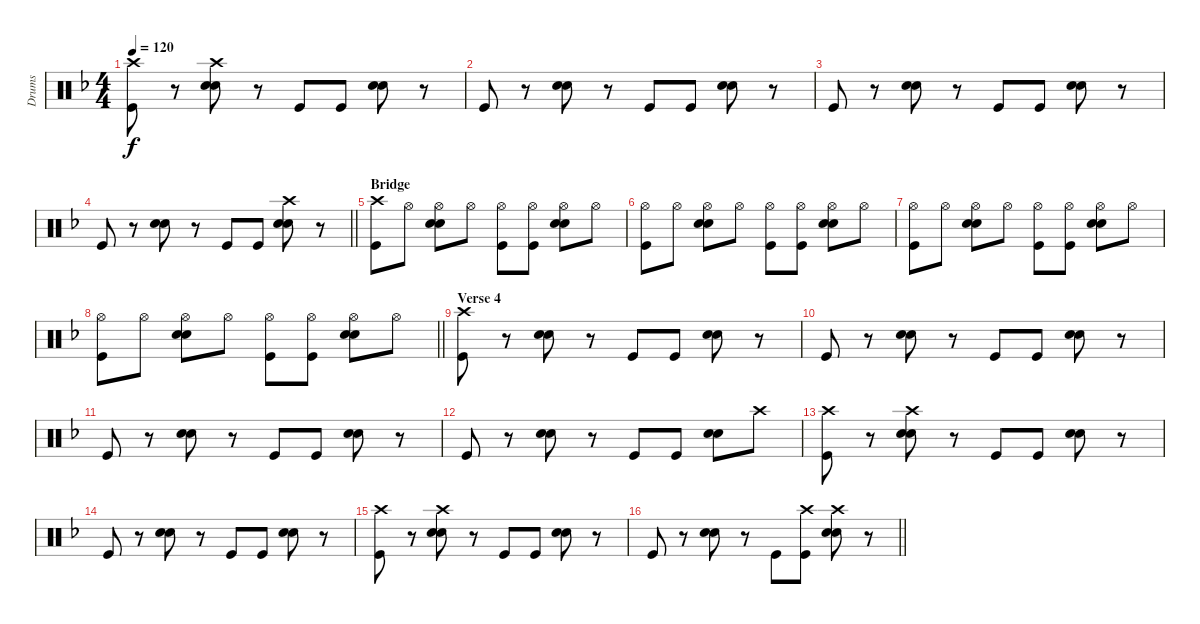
\track ("Drums" "Drums") {instrument percussion}
\staff {score}
\articulation defaults
\ts (4 4)
\tempo 120
\clef neutral
\ks f
("Crash high (hit)" "Kick (hit)").8{dy f} r.8 ("Crash high (hit)" "Electric Snare (hit)" "Snare (hit) 2").8 r.8 "Kick (hit)".8 "Kick (hit)".8 ("Electric Snare (hit)" "Snare (hit) 2").8 r.8 |
"Kick (hit)".8 r.8 ("Electric Snare (hit)" "Snare (hit) 2").8 r.8 "Kick (hit)".8 "Kick (hit)".8 ("Electric Snare (hit)" "Snare (hit) 2").8 r.8 |
"Kick (hit)".8 r.8 ("Electric Snare (hit)" "Snare (hit) 2").8 r.8 "Kick (hit)".8 "Kick (hit)".8 ("Electric Snare (hit)" "Snare (hit) 2").8 r.8 |
\barLineRight lightlight "Kick (hit)".8
r.8 ("Electric Snare (hit)" "Snare (hit) 2").8 r.8 "Kick (hit)".8 "Kick (hit)".8 ("Crash high (hit)" "Electric Snare (hit)" "Snare (hit) 2").8 r.8 |
\section ("" "Bridge")
("Crash high (hit)" "Kick (hit)").8{volume 16} "Hi-Hat (open)".8 ("Hi-Hat (open)" "Electric Snare (hit)" "Snare (hit) 2").8 "Hi-Hat (open)".8 ("Hi-Hat (open)" "Kick (hit)").8 ("Hi-Hat (open)" "Kick (hit)").8 ("Hi-Hat (open)" "Electric Snare (hit)" "Snare (hit) 2").8 "Hi-Hat (open)".8 |
("Hi-Hat (open)" "Kick (hit)").8 "Hi-Hat (open)".8 ("Hi-Hat (open)" "Electric Snare (hit)" "Snare (hit) 2").8 "Hi-Hat (open)".8 ("Hi-Hat (open)" "Kick (hit)").8 ("Hi-Hat (open)" "Kick (hit)").8 ("Hi-Hat (open)" "Electric Snare (hit)" "Snare (hit) 2").8 "Hi-Hat (open)".8 |
("Hi-Hat (open)" "Kick (hit)").8 "Hi-Hat (open)".8 ("Hi-Hat (open)" "Electric Snare (hit)" "Snare (hit) 2").8 "Hi-Hat (open)".8 ("Hi-Hat (open)" "Kick (hit)").8 ("Hi-Hat (open)" "Kick (hit)").8 ("Hi-Hat (open)" "Electric Snare (hit)" "Snare (hit) 2").8 "Hi-Hat (open)".8 |
\barLineRight lightlight
("Hi-Hat (open)" "Kick (hit)").8 "Hi-Hat (open)".8 ("Hi-Hat (open)" "Electric Snare (hit)" "Snare (hit) 2").8 "Hi-Hat (open)".8 ("Hi-Hat (open)" "Kick (hit)").8 ("Hi-Hat (open)" "Kick (hit)").8 ("Hi-Hat (open)" "Electric Snare (hit)" "Snare (hit) 2").8 "Hi-Hat (open)".8 |
\section ("" "Verse 4")
("Crash high (hit)" "Kick (hit)").8{volume 10} r.8 ("Electric Snare (hit)" "Snare (hit) 2").8 r.8 "Kick (hit)".8 "Kick (hit)".8 ("Electric Snare (hit)" "Snare (hit) 2").8 r.8 |
"Kick (hit)".8 r.8 ("Electric Snare (hit)" "Snare (hit) 2").8 r.8 "Kick (hit)".8 "Kick (hit)".8 ("Electric Snare (hit)" "Snare (hit) 2").8 r.8 |
"Kick (hit)".8 r.8 ("Electric Snare (hit)" "Snare (hit) 2").8 r.8 "Kick (hit)".8 "Kick (hit)".8 ("Electric Snare (hit)" "Snare (hit) 2").8 r.8 |
"Kick (hit)".8 r.8 ("Electric Snare (hit)" "Snare (hit) 2").8 r.8 "Kick (hit)".8 "Kick (hit)".8 ("Electric Snare (hit)" "Snare (hit) 2").8 "Crash high (hit)".8 |
("Crash high (hit)" "Kick (hit)").8 r.8 ("Crash high (hit)" "Electric Snare (hit)" "Snare (hit) 2").8 r.8 "Kick (hit)".8 "Kick (hit)".8 ("Electric Snare (hit)" "Snare (hit) 2").8 r.8 |
"Kick (hit)".8 r.8 ("Electric Snare (hit)" "Snare (hit) 2").8 r.8 "Kick (hit)".8 "Kick (hit)".8 ("Electric Snare (hit)" "Snare (hit) 2").8 r.8 |
("Crash high (hit)" "Kick (hit)").8 r.8 ("Crash high (hit)" "Electric Snare (hit)" "Snare (hit) 2").8 r.8 "Kick (hit)".8 "Kick (hit)".8 ("Electric Snare (hit)" "Snare (hit) 2").8 r.8 |
\barLineRight lightlight "Kick (hit)".8
r.8 ("Electric Snare (hit)" "Snare (hit) 2").8 r.8 "Kick (hit)".8 ("Crash high (hit)" "Kick (hit)").8 ("Crash high (hit)" "Electric Snare (hit)" "Snare (hit) 2").8 r.8
